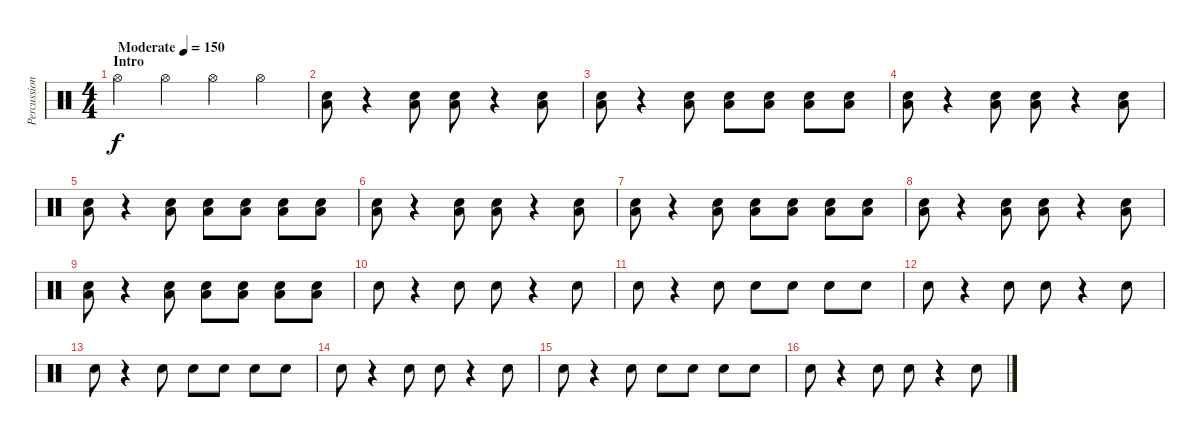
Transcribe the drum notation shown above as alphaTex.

\track ("Percussion" "Percussion") {instrument percussion}
\staff {score}
\articulation defaults
\ts (4 4)
\section ("" "Intro")
\tempo (150 "Moderate")
\clef neutral
\ks c "Hi-Hat (open)".4{dy f} "Hi-Hat (open)".4 "Hi-Hat (open)".4 "Hi-Hat (open)".4
|
("Low Tom (hit)" "Snare (hit) 2").8 r.4 ("Low Tom (hit)" "Snare (hit) 2").8 ("Low Tom (hit)" "Snare (hit) 2").8 r.4 ("Low Tom (hit)" "Snare (hit) 2").8 |
("Low Tom (hit)" "Snare (hit) 2").8 r.4 ("Low Tom (hit)" "Snare (hit) 2").8 ("Low Tom (hit)" "Snare (hit) 2").8 ("Low Tom (hit)" "Snare (hit) 2").8 ("Low Tom (hit)" "Snare (hit) 2").8 ("Low Tom (hit)" "Snare (hit) 2").8 |
("Low Tom (hit)" "Snare (hit) 2").8 r.4 ("Low Tom (hit)" "Snare (hit) 2").8 ("Low Tom (hit)" "Snare (hit) 2").8 r.4 ("Low Tom (hit)" "Snare (hit) 2").8 |
("Low Tom (hit)" "Snare (hit) 2").8 r.4 ("Low Tom (hit)" "Snare (hit) 2").8 ("Low Tom (hit)" "Snare (hit) 2").8 ("Low Tom (hit)" "Snare (hit) 2").8 ("Low Tom (hit)" "Snare (hit) 2").8 ("Low Tom (hit)" "Snare (hit) 2").8 |
("Low Tom (hit)" "Snare (hit) 2").8 r.4 ("Low Tom (hit)" "Snare (hit) 2").8 ("Low Tom (hit)" "Snare (hit) 2").8 r.4 ("Low Tom (hit)" "Snare (hit) 2").8 |
("Low Tom (hit)" "Snare (hit) 2").8 r.4 ("Low Tom (hit)" "Snare (hit) 2").8 ("Low Tom (hit)" "Snare (hit) 2").8 ("Low Tom (hit)" "Snare (hit) 2").8 ("Low Tom (hit)" "Snare (hit) 2").8 ("Low Tom (hit)" "Snare (hit) 2").8 |
("Low Tom (hit)" "Snare (hit) 2").8 r.4 ("Low Tom (hit)" "Snare (hit) 2").8 ("Low Tom (hit)" "Snare (hit) 2").8 r.4 ("Low Tom (hit)" "Snare (hit) 2").8 |
("Low Tom (hit)" "Snare (hit) 2").8 r.4 ("Low Tom (hit)" "Snare (hit) 2").8 ("Low Tom (hit)" "Snare (hit) 2").8 ("Low Tom (hit)" "Snare (hit) 2").8 ("Low Tom (hit)" "Snare (hit) 2").8 ("Low Tom (hit)" "Snare (hit) 2").8 |
"Snare (hit) 2".8 r.4 "Snare (hit) 2".8 "Snare (hit) 2".8 r.4 "Snare (hit) 2".8 |
"Snare (hit) 2".8 r.4 "Snare (hit) 2".8 "Snare (hit) 2".8 "Snare (hit) 2".8 "Snare (hit) 2".8 "Snare (hit) 2".8 |
"Snare (hit) 2".8 r.4 "Snare (hit) 2".8 "Snare (hit) 2".8 r.4 "Snare (hit) 2".8 |
"Snare (hit) 2".8 r.4 "Snare (hit) 2".8 "Snare (hit) 2".8 "Snare (hit) 2".8 "Snare (hit) 2".8 "Snare (hit) 2".8 |
"Snare (hit) 2".8 r.4 "Snare (hit) 2".8 "Snare (hit) 2".8 r.4 "Snare (hit) 2".8 |
"Snare (hit) 2".8 r.4 "Snare (hit) 2".8 "Snare (hit) 2".8 "Snare (hit) 2".8 "Snare (hit) 2".8 "Snare (hit) 2".8 |
"Snare (hit) 2".8 r.4 "Snare (hit) 2".8 "Snare (hit) 2".8 r.4 "Snare (hit) 2".8
